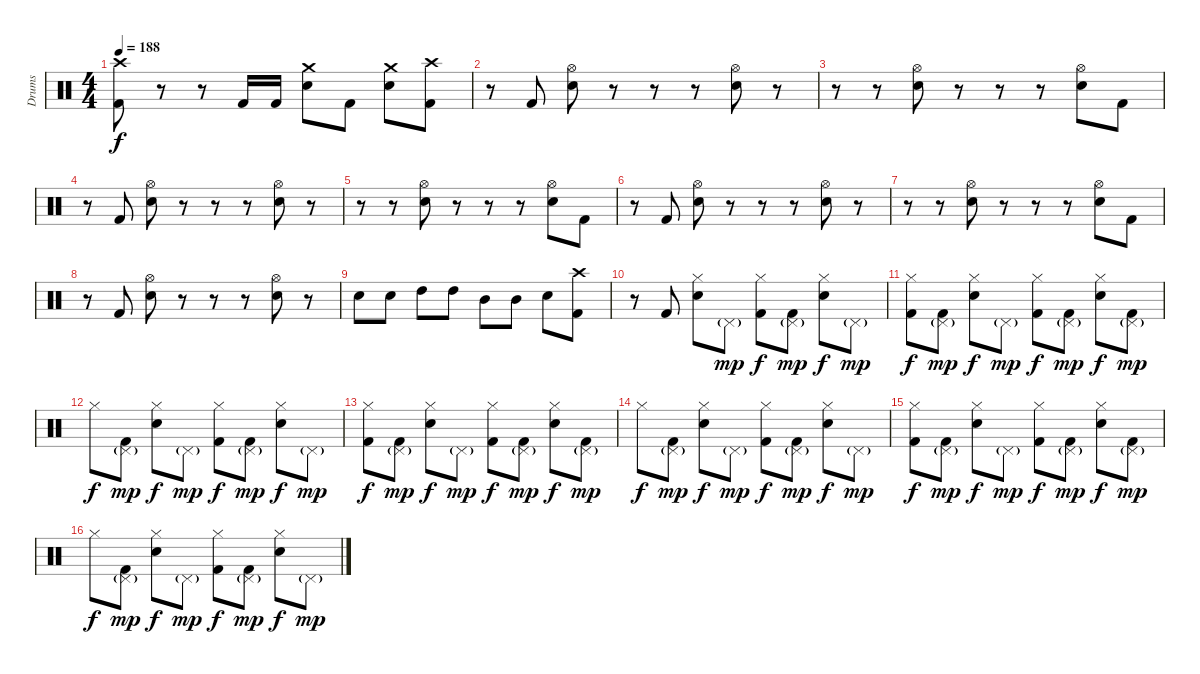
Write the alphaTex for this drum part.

\track ("Drums" "Drums") {instrument percussion}
\staff {score}
\articulation defaults
\ts (4 4)
\tempo 188
\clef neutral
\ks c
("Crash high (hit)" "Kick (hit) 2").8{dy f} r.8 r.8 "Kick (hit) 2".16 "Kick (hit) 2".16 ("Crash medium (hit)" "Electric Snare (hit)").8 "Kick (hit) 2".8 ("Crash medium (hit)" "Electric Snare (hit)").8 ("Crash high (hit)" "Kick (hit) 2").8 |
r.8 "Kick (hit) 2".8 ("Hi-Hat (open)" "Electric Snare (hit)").8 r.8 r.8 r.8 ("Hi-Hat (open)" "Electric Snare (hit)").8 r.8 |
r.8 r.8 ("Hi-Hat (open)" "Electric Snare (hit)").8 r.8 r.8 r.8 ("Hi-Hat (open)" "Electric Snare (hit)").8 "Kick (hit) 2".8 |
r.8 "Kick (hit) 2".8 ("Hi-Hat (open)" "Electric Snare (hit)").8 r.8 r.8 r.8 ("Hi-Hat (open)" "Electric Snare (hit)").8 r.8 |
r.8 r.8 ("Hi-Hat (open)" "Electric Snare (hit)").8 r.8 r.8 r.8 ("Hi-Hat (open)" "Electric Snare (hit)").8 "Kick (hit) 2".8 |
r.8 "Kick (hit) 2".8 ("Hi-Hat (open)" "Electric Snare (hit)").8 r.8 r.8 r.8 ("Hi-Hat (open)" "Electric Snare (hit)").8 r.8 |
r.8 r.8 ("Hi-Hat (open)" "Electric Snare (hit)").8 r.8 r.8 r.8 ("Hi-Hat (open)" "Electric Snare (hit)").8 "Kick (hit) 2".8 |
r.8 "Kick (hit) 2".8 ("Hi-Hat (open)" "Electric Snare (hit)").8 r.8 r.8 r.8 ("Hi-Hat (open)" "Electric Snare (hit)").8 r.8 |
"Electric Snare (hit)".8 "Electric Snare (hit)".8 "High Tom (hit)".8 "High Tom (hit)".8 "Mid Tom (hit)".8 "Mid Tom (hit)".8 "Electric Snare (hit)".8 ("Crash high (hit)" "Kick (hit) 2").8 |
r.8 "Kick (hit) 2".8 ("Hi-Hat (closed)" "Electric Snare (hit)").8 "Pedal Hi-Hat (hit)"{g}.8{dy mp} ("Hi-Hat (closed)" "Kick (hit) 2").8{dy f} ("Pedal Hi-Hat (hit)"{g} "Kick (hit) 2").8{dy mp} ("Hi-Hat (closed)" "Electric Snare (hit)").8{dy f} "Pedal Hi-Hat (hit)"{g}.8{dy mp} |
("Hi-Hat (closed)" "Kick (hit) 2").8{dy f} ("Pedal Hi-Hat (hit)"{g} "Kick (hit) 2").8{dy mp} ("Hi-Hat (closed)" "Electric Snare (hit)").8{dy f} "Pedal Hi-Hat (hit)"{g}.8{dy mp} ("Hi-Hat (closed)" "Kick (hit) 2").8{dy f} ("Pedal Hi-Hat (hit)"{g} "Kick (hit) 2").8{dy mp} ("Hi-Hat (closed)" "Electric Snare (hit)").8{dy f} ("Pedal Hi-Hat (hit)"{g} "Kick (hit) 2").8{dy mp} |
"Hi-Hat (closed)".8{dy f} ("Pedal Hi-Hat (hit)"{g} "Kick (hit) 2").8{dy mp} ("Hi-Hat (closed)" "Electric Snare (hit)").8{dy f} "Pedal Hi-Hat (hit)"{g}.8{dy mp} ("Hi-Hat (closed)" "Kick (hit) 2").8{dy f} ("Pedal Hi-Hat (hit)"{g} "Kick (hit) 2").8{dy mp} ("Hi-Hat (closed)" "Electric Snare (hit)").8{dy f} "Pedal Hi-Hat (hit)"{g}.8{dy mp} |
("Hi-Hat (closed)" "Kick (hit) 2").8{dy f} ("Pedal Hi-Hat (hit)"{g} "Kick (hit) 2").8{dy mp} ("Hi-Hat (closed)" "Electric Snare (hit)").8{dy f} "Pedal Hi-Hat (hit)"{g}.8{dy mp} ("Hi-Hat (closed)" "Kick (hit) 2").8{dy f} ("Pedal Hi-Hat (hit)"{g} "Kick (hit) 2").8{dy mp} ("Hi-Hat (closed)" "Electric Snare (hit)").8{dy f} ("Pedal Hi-Hat (hit)"{g} "Kick (hit) 2").8{dy mp} |
"Hi-Hat (closed)".8{dy f} ("Pedal Hi-Hat (hit)"{g} "Kick (hit) 2").8{dy mp} ("Hi-Hat (closed)" "Electric Snare (hit)").8{dy f} "Pedal Hi-Hat (hit)"{g}.8{dy mp} ("Hi-Hat (closed)" "Kick (hit) 2").8{dy f} ("Pedal Hi-Hat (hit)"{g} "Kick (hit) 2").8{dy mp} ("Hi-Hat (closed)" "Electric Snare (hit)").8{dy f} "Pedal Hi-Hat (hit)"{g}.8{dy mp} |
("Hi-Hat (closed)" "Kick (hit) 2").8{dy f} ("Pedal Hi-Hat (hit)"{g} "Kick (hit) 2").8{dy mp} ("Hi-Hat (closed)" "Electric Snare (hit)").8{dy f} "Pedal Hi-Hat (hit)"{g}.8{dy mp} ("Hi-Hat (closed)" "Kick (hit) 2").8{dy f} ("Pedal Hi-Hat (hit)"{g} "Kick (hit) 2").8{dy mp} ("Hi-Hat (closed)" "Electric Snare (hit)").8{dy f} ("Pedal Hi-Hat (hit)"{g} "Kick (hit) 2").8{dy mp} |
"Hi-Hat (closed)".8{dy f} ("Pedal Hi-Hat (hit)"{g} "Kick (hit) 2").8{dy mp} ("Hi-Hat (closed)" "Electric Snare (hit)").8{dy f} "Pedal Hi-Hat (hit)"{g}.8{dy mp} ("Hi-Hat (closed)" "Kick (hit) 2").8{dy f} ("Pedal Hi-Hat (hit)"{g} "Kick (hit) 2").8{dy mp} ("Hi-Hat (closed)" "Electric Snare (hit)").8{dy f} "Pedal Hi-Hat (hit)"{g}.8{dy mp}
